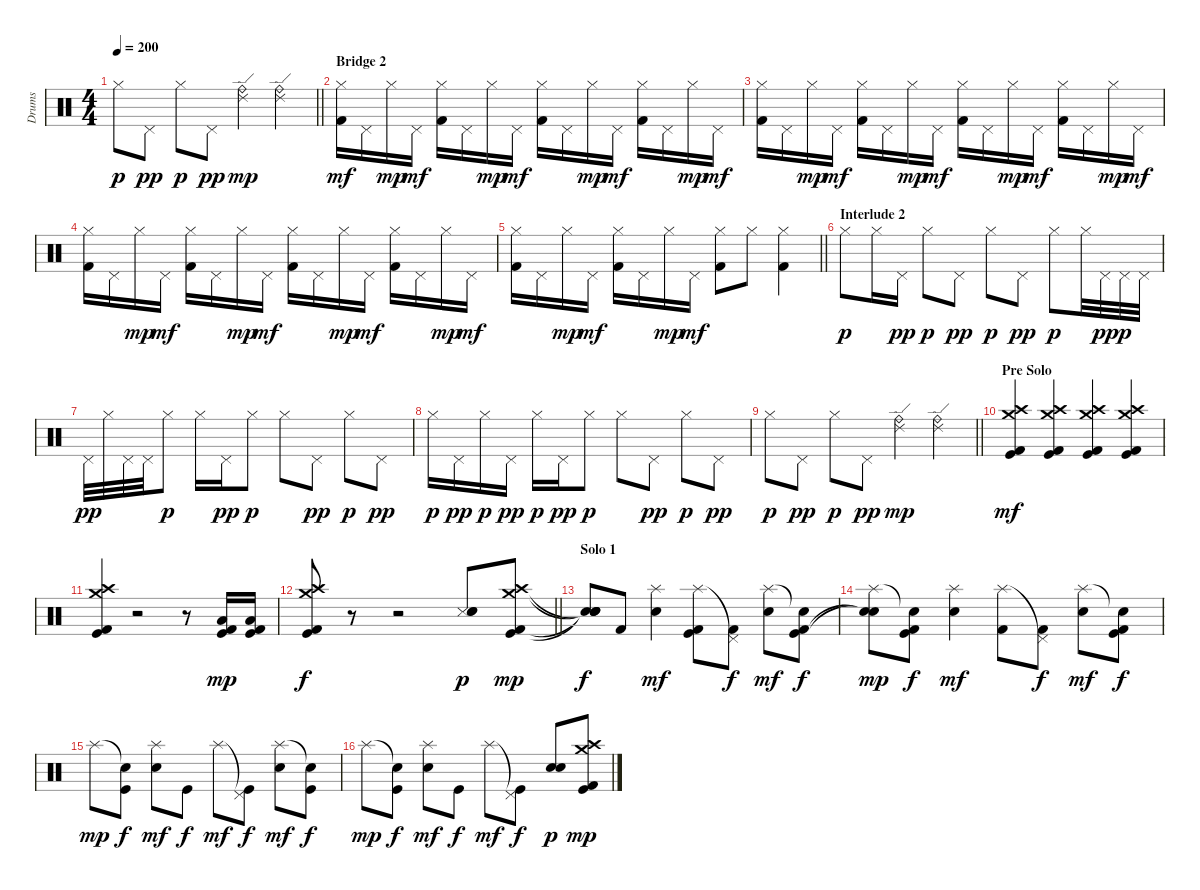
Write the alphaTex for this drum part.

\track ("Drums" "Drums") {instrument percussion}
\staff {score}
\articulation defaults
\ts (4 4)
\tempo 200
\clef neutral
\barLineRight lightlight
\ks c "Hi-Hat (closed)".8{dy p} "Pedal Hi-Hat (hit)".8{dy pp} "Hi-Hat (closed)".8{dy p} "Pedal Hi-Hat (hit)".8{dy pp}
("Ride (edge) 2" "Ride (bell)").4{dy mp} ("Ride (edge) 2" "Ride (bell)").4 |
\section ("" "Bridge 2")
("Hi-Hat (closed)" "Kick (hit) 2").16{dy mf} "Pedal Hi-Hat (hit)".16 "Hi-Hat (closed)".16{dy mp} "Pedal Hi-Hat (hit)".16{dy mf} ("Hi-Hat (closed)" "Kick (hit) 2").16 "Pedal Hi-Hat (hit)".16 "Hi-Hat (closed)".16{dy mp} "Pedal Hi-Hat (hit)".16{dy mf} ("Hi-Hat (closed)" "Kick (hit) 2").16 "Pedal Hi-Hat (hit)".16 "Hi-Hat (closed)".16{dy mp} "Pedal Hi-Hat (hit)".16{dy mf} ("Hi-Hat (closed)" "Kick (hit) 2").16 "Pedal Hi-Hat (hit)".16 "Hi-Hat (closed)".16{dy mp} "Pedal Hi-Hat (hit)".16{dy mf} |
("Hi-Hat (closed)" "Kick (hit) 2").16 "Pedal Hi-Hat (hit)".16 "Hi-Hat (closed)".16{dy mp} "Pedal Hi-Hat (hit)".16{dy mf} ("Hi-Hat (closed)" "Kick (hit) 2").16 "Pedal Hi-Hat (hit)".16 "Hi-Hat (closed)".16{dy mp} "Pedal Hi-Hat (hit)".16{dy mf} ("Hi-Hat (closed)" "Kick (hit) 2").16 "Pedal Hi-Hat (hit)".16 "Hi-Hat (closed)".16{dy mp} "Pedal Hi-Hat (hit)".16{dy mf} ("Hi-Hat (closed)" "Kick (hit) 2").16 "Pedal Hi-Hat (hit)".16 "Hi-Hat (closed)".16{dy mp} "Pedal Hi-Hat (hit)".16{dy mf} |
("Hi-Hat (closed)" "Kick (hit) 2").16 "Pedal Hi-Hat (hit)".16 "Hi-Hat (closed)".16{dy mp} "Pedal Hi-Hat (hit)".16{dy mf} ("Hi-Hat (closed)" "Kick (hit) 2").16 "Pedal Hi-Hat (hit)".16 "Hi-Hat (closed)".16{dy mp} "Pedal Hi-Hat (hit)".16{dy mf} ("Hi-Hat (closed)" "Kick (hit) 2").16 "Pedal Hi-Hat (hit)".16 "Hi-Hat (closed)".16{dy mp} "Pedal Hi-Hat (hit)".16{dy mf} ("Hi-Hat (closed)" "Kick (hit) 2").16 "Pedal Hi-Hat (hit)".16 "Hi-Hat (closed)".16{dy mp} "Pedal Hi-Hat (hit)".16{dy mf} |
\barLineRight lightlight
("Hi-Hat (closed)" "Kick (hit) 2").16 "Pedal Hi-Hat (hit)".16 "Hi-Hat (closed)".16{dy mp} "Pedal Hi-Hat (hit)".16{dy mf} ("Hi-Hat (closed)" "Kick (hit) 2").16 "Pedal Hi-Hat (hit)".16 "Hi-Hat (closed)".16{dy mp} "Pedal Hi-Hat (hit)".16{dy mf} ("Hi-Hat (closed)" "Kick (hit) 2").8 "Hi-Hat (closed)".8 ("Hi-Hat (closed)" "Kick (hit) 2").4 |
\section ("" "Interlude 2")
"Hi-Hat (closed)".8{dy p} "Hi-Hat (closed)".16 "Pedal Hi-Hat (hit)".16{dy pp} "Hi-Hat (closed)".8{dy p} "Pedal Hi-Hat (hit)".8{dy pp} "Hi-Hat (closed)".8{dy p} "Pedal Hi-Hat (hit)".8{dy pp} "Hi-Hat (closed)".8{dy p} "Hi-Hat (closed)".32 "Pedal Hi-Hat (hit)".32{dy pp} "Pedal Hi-Hat (hit)".32{dy p} "Pedal Hi-Hat (hit)".32 |
"Pedal Hi-Hat (hit)".32{dy pp} "Hi-Hat (closed)".32 "Pedal Hi-Hat (hit)".32 "Pedal Hi-Hat (hit)".32 "Hi-Hat (closed)".8{dy p} "Hi-Hat (closed)".16 "Pedal Hi-Hat (hit)".16{dy pp} "Hi-Hat (closed)".8{dy p} "Hi-Hat (closed)".8 "Pedal Hi-Hat (hit)".8{dy pp} "Hi-Hat (closed)".8{dy p} "Pedal Hi-Hat (hit)".8{dy pp} |
"Hi-Hat (closed)".16{dy p} "Pedal Hi-Hat (hit)".16{dy pp} "Hi-Hat (closed)".16{dy p} "Pedal Hi-Hat (hit)".16{dy pp} "Hi-Hat (closed)".16{dy p} "Pedal Hi-Hat (hit)".16{dy pp} "Hi-Hat (closed)".8{dy p} "Hi-Hat (closed)".8 "Pedal Hi-Hat (hit)".8{dy pp} "Hi-Hat (closed)".8{dy p} "Pedal Hi-Hat (hit)".8{dy pp} |
\barLineRight lightlight "Hi-Hat (closed)".8{dy p} "Pedal Hi-Hat (hit)".8{dy pp} "Hi-Hat (closed)".8{dy p} "Pedal Hi-Hat (hit)".8{dy pp}
("Ride (edge) 2" "Ride (bell)").4{dy mp} ("Ride (edge) 2" "Ride (bell)").4 |
\section ("" "Pre Solo")
("Crash high (hit)" "Crash medium (hit)" "Kick (hit)" "Kick (hit) 2").4{dy mf} ("Crash high (hit)" "Crash medium (hit)" "Kick (hit)" "Kick (hit) 2").4 ("Crash high (hit)" "Crash medium (hit)" "Kick (hit)" "Kick (hit) 2").4 ("Crash high (hit)" "Crash medium (hit)" "Kick (hit)" "Kick (hit) 2").4 |
("Crash high (hit)" "Crash medium (hit)" "Kick (hit)" "Kick (hit) 2").4 r.2 r.8 ("Low Floor Tom (hit)" "Kick (hit)" "Kick (hit) 2").16{dy mp} ("Low Floor Tom (hit)" "Kick (hit)" "Kick (hit) 2").16 |
\barLineRight lightlight
("Crash high (hit)" "Crash medium (hit)" "Kick (hit)" "Kick (hit) 2").8{dy f} r.8 r.2 ("Snare (side stick) 3" "Snare (hit) 2" "Electric Snare (hit)").8{dy p} ("Crash high (hit)" "Crash medium (hit)" "Kick (hit)" "Kick (hit) 2").8{dy mp} |
\section ("" "Solo 1")
("Snare (hit)"{t} "Snare (hit)"{t} "Snare (hit)"{t} "Snare (hit)"{t}).8{dy f} "Kick (hit) 2".8 ("Splash (hit)" "Snare (hit) 2").4{dy mf} ("Splash (hit)" "Kick (hit)" "Kick (hit) 2").8 ("Pedal Hi-Hat (hit)"{t} "Kick (hit) 2").8{dy f} ("Splash (hit)" "Snare (hit) 2").8{dy mf} ("Snare (hit)"{t} "Kick (hit)" "Kick (hit) 2").8{dy f} |
("Splash (hit)" "Snare (hit)"{t} "Snare (hit)"{t}).8{dy mp} ("Snare (hit)"{t} "Kick (hit)" "Kick (hit) 2").8{dy f} ("Splash (hit)" "Snare (hit) 2").4{dy mf} ("Splash (hit)" "Kick (hit) 2").8 ("Pedal Hi-Hat (hit)"{t} "Kick (hit) 2").8{dy f} ("Splash (hit)" "Snare (hit) 2").8{dy mf} ("Snare (hit)"{t} "Kick (hit)" "Kick (hit) 2").8{dy f} |
"Splash (hit)".8{dy mp} ("Snare (hit)"{t} "Kick (hit)").8{dy f} ("Splash (hit)" "Snare (hit) 2").8{dy mf} "Kick (hit)".8{dy f} "Splash (hit)".8{dy mf} ("Pedal Hi-Hat (hit)"{t} "Kick (hit)").8{dy f} ("Splash (hit)" "Snare (hit) 2").8{dy mf} ("Snare (hit)"{t} "Kick (hit)").8{dy f} |
"Splash (hit)".8{dy mp} ("Snare (hit)"{t} "Kick (hit)").8{dy f} ("Splash (hit)" "Snare (hit) 2").8{dy mf} "Kick (hit)".8{dy f} "Splash (hit)".8{dy mf} ("Pedal Hi-Hat (hit)"{t} "Kick (hit)").8{dy f} ("Snare (hit) 2" "Electric Snare (hit)").8{dy p} ("Crash high (hit)" "Crash medium (hit)" "Kick (hit)" "Kick (hit) 2").8{dy mp}
